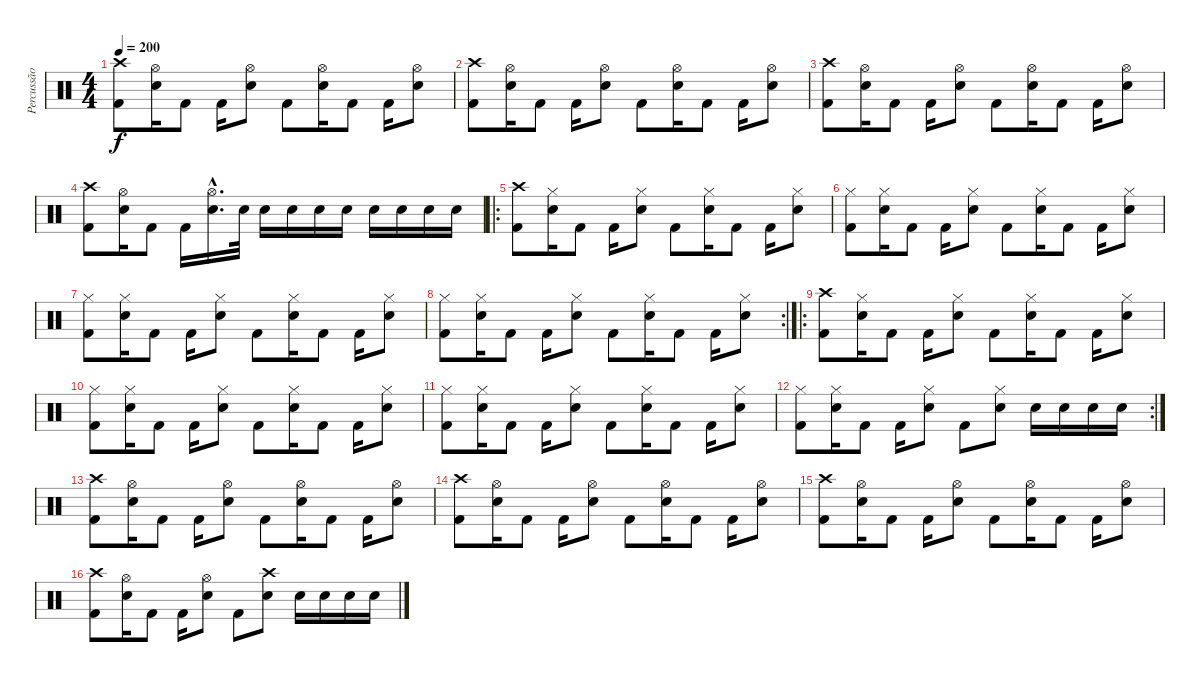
\track ("Percussão" "Percussão") {instrument percussion}
\staff {score}
\articulation defaults
\ts (4 4)
\tempo 200
\clef neutral
\ks c
("Crash high (hit)" "Kick (hit) 2").8{dy f} ("Hi-Hat (open)" "Snare (hit) 2").16 "Kick (hit) 2".8 "Kick (hit) 2".16 ("Hi-Hat (open)" "Snare (hit) 2").8 "Kick (hit) 2".8 ("Hi-Hat (open)" "Snare (hit) 2").16 "Kick (hit) 2".8 "Kick (hit) 2".16 ("Hi-Hat (open)" "Snare (hit) 2").8 |
("Crash high (hit)" "Kick (hit) 2").8 ("Hi-Hat (open)" "Snare (hit) 2").16 "Kick (hit) 2".8 "Kick (hit) 2".16 ("Hi-Hat (open)" "Snare (hit) 2").8 "Kick (hit) 2".8 ("Hi-Hat (open)" "Snare (hit) 2").16 "Kick (hit) 2".8 "Kick (hit) 2".16 ("Hi-Hat (open)" "Snare (hit) 2").8 |
("Crash high (hit)" "Kick (hit) 2").8 ("Hi-Hat (open)" "Snare (hit) 2").16 "Kick (hit) 2".8 "Kick (hit) 2".16 ("Hi-Hat (open)" "Snare (hit) 2").8 "Kick (hit) 2".8 ("Hi-Hat (open)" "Snare (hit) 2").16 "Kick (hit) 2".8 "Kick (hit) 2".16 ("Hi-Hat (open)" "Snare (hit) 2").8 |
("Crash high (hit)" "Kick (hit) 2").8 ("Hi-Hat (open)" "Snare (hit) 2").16 "Kick (hit) 2".8 "Kick (hit) 2".16 ("Hi-Hat (open)"{hac} "Snare (hit) 2"{hac}).16{d} "Snare (hit) 2".32 "Snare (hit) 2".16 "Snare (hit) 2".16 "Snare (hit) 2".16 "Snare (hit) 2".16 "Snare (hit) 2".16 "Snare (hit) 2".16 "Snare (hit) 2".16 "Snare (hit) 2".16 |
\ro
("Crash high (hit)" "Kick (hit) 2").8 ("Hi-Hat (closed)" "Snare (hit) 2").16 "Kick (hit) 2".8 "Kick (hit) 2".16 ("Hi-Hat (closed)" "Snare (hit) 2").8 "Kick (hit) 2".8 ("Hi-Hat (closed)" "Snare (hit) 2").16 "Kick (hit) 2".8 "Kick (hit) 2".16 ("Hi-Hat (closed)" "Snare (hit) 2").8 |
("Hi-Hat (closed)" "Kick (hit) 2").8 ("Hi-Hat (closed)" "Snare (hit) 2").16 "Kick (hit) 2".8 "Kick (hit) 2".16 ("Hi-Hat (closed)" "Snare (hit) 2").8 "Kick (hit) 2".8 ("Hi-Hat (closed)" "Snare (hit) 2").16 "Kick (hit) 2".8 "Kick (hit) 2".16 ("Hi-Hat (closed)" "Snare (hit) 2").8 |
("Hi-Hat (closed)" "Kick (hit) 2").8 ("Hi-Hat (closed)" "Snare (hit) 2").16 "Kick (hit) 2".8 "Kick (hit) 2".16 ("Hi-Hat (closed)" "Snare (hit) 2").8 "Kick (hit) 2".8 ("Hi-Hat (closed)" "Snare (hit) 2").16 "Kick (hit) 2".8 "Kick (hit) 2".16 ("Hi-Hat (closed)" "Snare (hit) 2").8 |
\rc 2
("Hi-Hat (closed)" "Kick (hit) 2").8 ("Hi-Hat (closed)" "Snare (hit) 2").16 "Kick (hit) 2".8 "Kick (hit) 2".16 ("Hi-Hat (closed)" "Snare (hit) 2").8 "Kick (hit) 2".8 ("Hi-Hat (closed)" "Snare (hit) 2").16 "Kick (hit) 2".8 "Kick (hit) 2".16 ("Hi-Hat (closed)" "Snare (hit) 2").8 |
\ro
("Crash high (hit)" "Kick (hit) 2").8 ("Hi-Hat (closed)" "Snare (hit) 2").16 "Kick (hit) 2".8 "Kick (hit) 2".16 ("Hi-Hat (closed)" "Snare (hit) 2").8 "Kick (hit) 2".8 ("Hi-Hat (closed)" "Snare (hit) 2").16 "Kick (hit) 2".8 "Kick (hit) 2".16 ("Hi-Hat (closed)" "Snare (hit) 2").8 |
("Hi-Hat (closed)" "Kick (hit) 2").8 ("Hi-Hat (closed)" "Snare (hit) 2").16 "Kick (hit) 2".8 "Kick (hit) 2".16 ("Hi-Hat (closed)" "Snare (hit) 2").8 "Kick (hit) 2".8 ("Hi-Hat (closed)" "Snare (hit) 2").16 "Kick (hit) 2".8 "Kick (hit) 2".16 ("Hi-Hat (closed)" "Snare (hit) 2").8 |
("Hi-Hat (closed)" "Kick (hit) 2").8 ("Hi-Hat (closed)" "Snare (hit) 2").16 "Kick (hit) 2".8 "Kick (hit) 2".16 ("Hi-Hat (closed)" "Snare (hit) 2").8 "Kick (hit) 2".8 ("Hi-Hat (closed)" "Snare (hit) 2").16 "Kick (hit) 2".8 "Kick (hit) 2".16 ("Hi-Hat (closed)" "Snare (hit) 2").8 |
\rc 2
("Hi-Hat (closed)" "Kick (hit) 2").8 ("Hi-Hat (closed)" "Snare (hit) 2").16 "Kick (hit) 2".8 "Kick (hit) 2".16 ("Hi-Hat (closed)" "Snare (hit) 2").8 "Kick (hit) 2".8 ("Hi-Hat (closed)" "Snare (hit) 2").8 "Snare (hit) 2".16 "Snare (hit) 2".16 "Snare (hit) 2".16 "Snare (hit) 2".16 |
("Crash high (hit)" "Kick (hit) 2").8 ("Hi-Hat (open)" "Snare (hit) 2").16 "Kick (hit) 2".8 "Kick (hit) 2".16 ("Hi-Hat (open)" "Snare (hit) 2").8 "Kick (hit) 2".8 ("Hi-Hat (open)" "Snare (hit) 2").16 "Kick (hit) 2".8 "Kick (hit) 2".16 ("Hi-Hat (open)" "Snare (hit) 2").8 |
("Crash high (hit)" "Kick (hit) 2").8 ("Hi-Hat (open)" "Snare (hit) 2").16 "Kick (hit) 2".8 "Kick (hit) 2".16 ("Hi-Hat (open)" "Snare (hit) 2").8 "Kick (hit) 2".8 ("Hi-Hat (open)" "Snare (hit) 2").16 "Kick (hit) 2".8 "Kick (hit) 2".16 ("Hi-Hat (open)" "Snare (hit) 2").8 |
("Crash high (hit)" "Kick (hit) 2").8 ("Hi-Hat (open)" "Snare (hit) 2").16 "Kick (hit) 2".8 "Kick (hit) 2".16 ("Hi-Hat (open)" "Snare (hit) 2").8 "Kick (hit) 2".8 ("Hi-Hat (open)" "Snare (hit) 2").16 "Kick (hit) 2".8 "Kick (hit) 2".16 ("Hi-Hat (open)" "Snare (hit) 2").8 |
("Crash high (hit)" "Kick (hit) 2").8 ("Hi-Hat (open)" "Snare (hit) 2").16 "Kick (hit) 2".8 "Kick (hit) 2".16 ("Hi-Hat (open)" "Snare (hit) 2").8 "Kick (hit) 2".8 ("Crash high (hit)" "Snare (hit) 2").8 "Snare (hit) 2".16 "Snare (hit) 2".16 "Snare (hit) 2".16 "Snare (hit) 2".16
